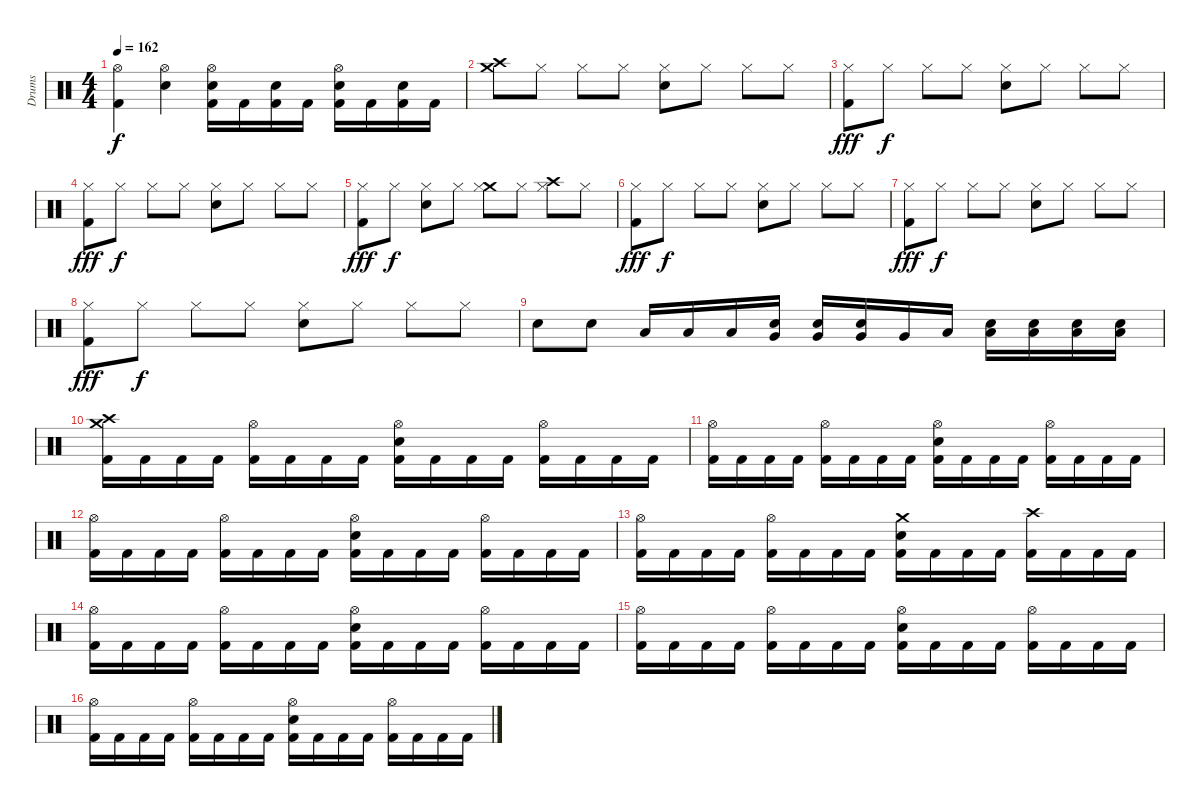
\track ("Drums" "Drums") {instrument percussion}
\staff {score}
\articulation defaults
\ts (4 4)
\tempo 162
\clef neutral
\ks c
("Hi-Hat (open)" "Kick (hit) 2").4{dy f} ("Hi-Hat (open)" "Electric Snare (hit)").4 ("Hi-Hat (open)" "Electric Snare (hit)" "Kick (hit) 2").16 "Kick (hit) 2".16 ("Electric Snare (hit)" "Kick (hit) 2").16 "Kick (hit) 2".16 ("Hi-Hat (open)" "Electric Snare (hit)" "Kick (hit) 2").16 "Kick (hit) 2".16 ("Electric Snare (hit)" "Kick (hit) 2").16 "Kick (hit) 2".16 |
("Crash medium (hit)" "Crash high (hit)").8 "Hi-Hat (closed)".8 "Hi-Hat (closed)".8 "Hi-Hat (closed)".8 ("Electric Snare (hit)" "Hi-Hat (closed)").8 "Hi-Hat (closed)".8 "Hi-Hat (closed)".8 "Hi-Hat (closed)".8 |
("Hi-Hat (closed)" "Kick (hit) 2").8{dy fff} "Hi-Hat (closed)".8{dy f} "Hi-Hat (closed)".8 "Hi-Hat (closed)".8 ("Electric Snare (hit)" "Hi-Hat (closed)").8 "Hi-Hat (closed)".8 "Hi-Hat (closed)".8 "Hi-Hat (closed)".8 |
("Hi-Hat (closed)" "Kick (hit) 2").8{dy fff} "Hi-Hat (closed)".8{dy f} "Hi-Hat (closed)".8 "Hi-Hat (closed)".8 ("Electric Snare (hit)" "Hi-Hat (closed)").8 "Hi-Hat (closed)".8 "Hi-Hat (closed)".8 "Hi-Hat (closed)".8 |
("Hi-Hat (closed)" "Kick (hit) 2").8{dy fff} "Hi-Hat (closed)".8{dy f} ("Electric Snare (hit)" "Hi-Hat (closed)").8 "Hi-Hat (closed)".8 ("Crash medium (hit)" "Hi-Hat (closed)").8 "Hi-Hat (closed)".8 ("Crash high (hit)" "Hi-Hat (closed)").8 "Hi-Hat (closed)".8 |
("Hi-Hat (closed)" "Kick (hit) 2").8{dy fff} "Hi-Hat (closed)".8{dy f} "Hi-Hat (closed)".8 "Hi-Hat (closed)".8 ("Electric Snare (hit)" "Hi-Hat (closed)").8 "Hi-Hat (closed)".8 "Hi-Hat (closed)".8 "Hi-Hat (closed)".8 |
("Hi-Hat (closed)" "Kick (hit) 2").8{dy fff} "Hi-Hat (closed)".8{dy f} "Hi-Hat (closed)".8 "Hi-Hat (closed)".8 ("Electric Snare (hit)" "Hi-Hat (closed)").8 "Hi-Hat (closed)".8 "Hi-Hat (closed)".8 "Hi-Hat (closed)".8 |
("Hi-Hat (closed)" "Kick (hit) 2").8{dy fff} "Hi-Hat (closed)".8{dy f} "Hi-Hat (closed)".8 "Hi-Hat (closed)".8 ("Electric Snare (hit)" "Hi-Hat (closed)").8 "Hi-Hat (closed)".8 "Hi-Hat (closed)".8 "Hi-Hat (closed)".8 |
"Electric Snare (hit)".8 "Electric Snare (hit)".8 "Low Tom (hit)".16 "Low Tom (hit)".16 "Low Tom (hit)".16 ("Electric Snare (hit)" "Very Low Tom (hit)").16 ("Electric Snare (hit)" "Very Low Tom (hit)").16 ("Electric Snare (hit)" "Very Low Tom (hit)").16 "Very Low Tom (hit)".16 "Low Floor Tom (hit)".16 ("Electric Snare (hit)" "Low Floor Tom (hit)").16 ("Electric Snare (hit)" "Low Floor Tom (hit)").16 ("Electric Snare (hit)" "Low Floor Tom (hit)").16 ("Electric Snare (hit)" "Low Floor Tom (hit)").16 |
("Crash medium (hit)" "Crash high (hit)" "Kick (hit) 2").16 "Kick (hit) 2".16 "Kick (hit) 2".16 "Kick (hit) 2".16 ("Hi-Hat (open)" "Kick (hit) 2").16 "Kick (hit) 2".16 "Kick (hit) 2".16 "Kick (hit) 2".16 ("Electric Snare (hit)" "Hi-Hat (open)" "Kick (hit) 2").16 "Kick (hit) 2".16 "Kick (hit) 2".16 "Kick (hit) 2".16 ("Hi-Hat (open)" "Kick (hit) 2").16 "Kick (hit) 2".16 "Kick (hit) 2".16 "Kick (hit) 2".16 |
("Hi-Hat (open)" "Kick (hit) 2").16 "Kick (hit) 2".16 "Kick (hit) 2".16 "Kick (hit) 2".16 ("Hi-Hat (open)" "Kick (hit) 2").16 "Kick (hit) 2".16 "Kick (hit) 2".16 "Kick (hit) 2".16 ("Electric Snare (hit)" "Hi-Hat (open)" "Kick (hit) 2").16 "Kick (hit) 2".16 "Kick (hit) 2".16 "Kick (hit) 2".16 ("Hi-Hat (open)" "Kick (hit) 2").16 "Kick (hit) 2".16 "Kick (hit) 2".16 "Kick (hit) 2".16 |
("Hi-Hat (open)" "Kick (hit) 2").16 "Kick (hit) 2".16 "Kick (hit) 2".16 "Kick (hit) 2".16 ("Hi-Hat (open)" "Kick (hit) 2").16 "Kick (hit) 2".16 "Kick (hit) 2".16 "Kick (hit) 2".16 ("Electric Snare (hit)" "Hi-Hat (open)" "Kick (hit) 2").16 "Kick (hit) 2".16 "Kick (hit) 2".16 "Kick (hit) 2".16 ("Hi-Hat (open)" "Kick (hit) 2").16 "Kick (hit) 2".16 "Kick (hit) 2".16 "Kick (hit) 2".16 |
("Hi-Hat (open)" "Kick (hit) 2").16 "Kick (hit) 2".16 "Kick (hit) 2".16 "Kick (hit) 2".16 ("Hi-Hat (open)" "Kick (hit) 2").16 "Kick (hit) 2".16 "Kick (hit) 2".16 "Kick (hit) 2".16 ("Crash medium (hit)" "Electric Snare (hit)" "Kick (hit) 2").16 "Kick (hit) 2".16 "Kick (hit) 2".16 "Kick (hit) 2".16 ("Crash high (hit)" "Kick (hit) 2").16 "Kick (hit) 2".16 "Kick (hit) 2".16 "Kick (hit) 2".16 |
("Hi-Hat (open)" "Kick (hit) 2").16 "Kick (hit) 2".16 "Kick (hit) 2".16 "Kick (hit) 2".16 ("Hi-Hat (open)" "Kick (hit) 2").16 "Kick (hit) 2".16 "Kick (hit) 2".16 "Kick (hit) 2".16 ("Electric Snare (hit)" "Hi-Hat (open)" "Kick (hit) 2").16 "Kick (hit) 2".16 "Kick (hit) 2".16 "Kick (hit) 2".16 ("Hi-Hat (open)" "Kick (hit) 2").16 "Kick (hit) 2".16 "Kick (hit) 2".16 "Kick (hit) 2".16 |
("Hi-Hat (open)" "Kick (hit) 2").16 "Kick (hit) 2".16 "Kick (hit) 2".16 "Kick (hit) 2".16 ("Hi-Hat (open)" "Kick (hit) 2").16 "Kick (hit) 2".16 "Kick (hit) 2".16 "Kick (hit) 2".16 ("Electric Snare (hit)" "Hi-Hat (open)" "Kick (hit) 2").16 "Kick (hit) 2".16 "Kick (hit) 2".16 "Kick (hit) 2".16 ("Hi-Hat (open)" "Kick (hit) 2").16 "Kick (hit) 2".16 "Kick (hit) 2".16 "Kick (hit) 2".16 |
("Hi-Hat (open)" "Kick (hit) 2").16 "Kick (hit) 2".16 "Kick (hit) 2".16 "Kick (hit) 2".16 ("Hi-Hat (open)" "Kick (hit) 2").16 "Kick (hit) 2".16 "Kick (hit) 2".16 "Kick (hit) 2".16 ("Electric Snare (hit)" "Hi-Hat (open)" "Kick (hit) 2").16 "Kick (hit) 2".16 "Kick (hit) 2".16 "Kick (hit) 2".16 ("Hi-Hat (open)" "Kick (hit) 2").16 "Kick (hit) 2".16 "Kick (hit) 2".16 "Kick (hit) 2".16
